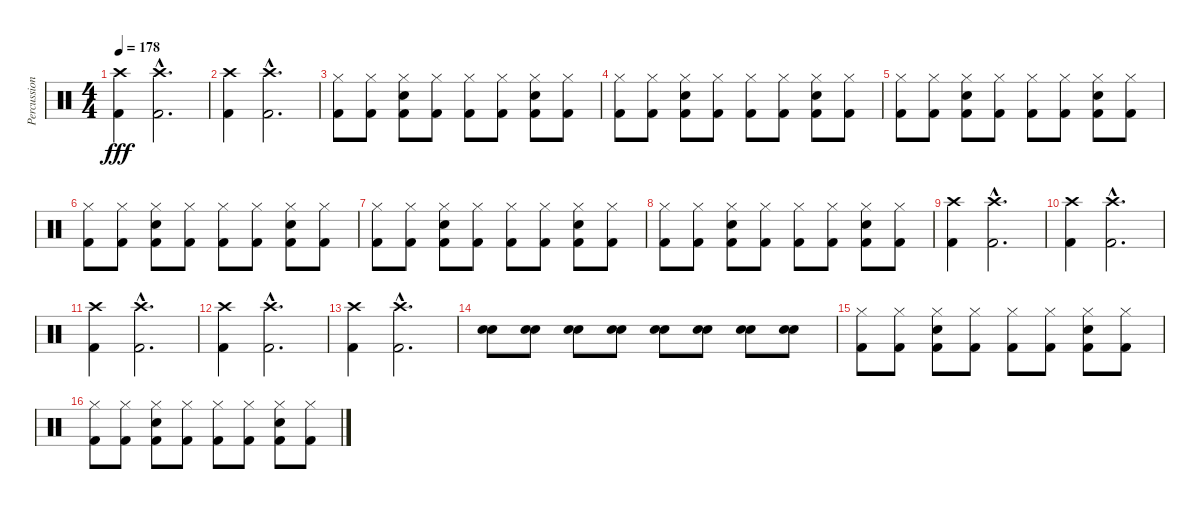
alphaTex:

\track ("Percussion" "Percussion") {instrument percussion}
\staff {score}
\articulation defaults
\ts (4 4)
\tempo 178
\clef neutral
\ks c
("Crash high (hit)" "Kick (hit) 2").4{dy fff} ("Crash high (hit)"{hac} "Kick (hit) 2"{hac}).2{d} |
("Crash high (hit)" "Kick (hit) 2").4 ("Crash high (hit)"{hac} "Kick (hit) 2"{hac}).2{d} |
("Hi-Hat (closed)" "Kick (hit) 2").8 ("Hi-Hat (closed)" "Kick (hit) 2").8 ("Hi-Hat (closed)" "Kick (hit) 2" "Electric Snare (hit)").8 ("Hi-Hat (closed)" "Kick (hit) 2").8 ("Hi-Hat (closed)" "Kick (hit) 2").8 ("Hi-Hat (closed)" "Kick (hit) 2").8 ("Hi-Hat (closed)" "Kick (hit) 2" "Electric Snare (hit)").8 ("Hi-Hat (closed)" "Kick (hit) 2").8 |
("Hi-Hat (closed)" "Kick (hit) 2").8 ("Hi-Hat (closed)" "Kick (hit) 2").8 ("Hi-Hat (closed)" "Kick (hit) 2" "Electric Snare (hit)").8 ("Hi-Hat (closed)" "Kick (hit) 2").8 ("Hi-Hat (closed)" "Kick (hit) 2").8 ("Hi-Hat (closed)" "Kick (hit) 2").8 ("Hi-Hat (closed)" "Kick (hit) 2" "Electric Snare (hit)").8 ("Hi-Hat (closed)" "Kick (hit) 2").8 |
("Hi-Hat (closed)" "Kick (hit) 2").8 ("Hi-Hat (closed)" "Kick (hit) 2").8 ("Hi-Hat (closed)" "Kick (hit) 2" "Electric Snare (hit)").8 ("Hi-Hat (closed)" "Kick (hit) 2").8 ("Hi-Hat (closed)" "Kick (hit) 2").8 ("Hi-Hat (closed)" "Kick (hit) 2").8 ("Hi-Hat (closed)" "Kick (hit) 2" "Electric Snare (hit)").8 ("Hi-Hat (closed)" "Kick (hit) 2").8 |
("Hi-Hat (closed)" "Kick (hit) 2").8 ("Hi-Hat (closed)" "Kick (hit) 2").8 ("Hi-Hat (closed)" "Kick (hit) 2" "Electric Snare (hit)").8 ("Hi-Hat (closed)" "Kick (hit) 2").8 ("Hi-Hat (closed)" "Kick (hit) 2").8 ("Hi-Hat (closed)" "Kick (hit) 2").8 ("Hi-Hat (closed)" "Kick (hit) 2" "Electric Snare (hit)").8 ("Hi-Hat (closed)" "Kick (hit) 2").8 |
("Hi-Hat (closed)" "Kick (hit) 2").8 ("Hi-Hat (closed)" "Kick (hit) 2").8 ("Hi-Hat (closed)" "Kick (hit) 2" "Electric Snare (hit)").8 ("Hi-Hat (closed)" "Kick (hit) 2").8 ("Hi-Hat (closed)" "Kick (hit) 2").8 ("Hi-Hat (closed)" "Kick (hit) 2").8 ("Hi-Hat (closed)" "Kick (hit) 2" "Electric Snare (hit)").8 ("Hi-Hat (closed)" "Kick (hit) 2").8 |
("Hi-Hat (closed)" "Kick (hit) 2").8 ("Hi-Hat (closed)" "Kick (hit) 2").8 ("Hi-Hat (closed)" "Kick (hit) 2" "Electric Snare (hit)").8 ("Hi-Hat (closed)" "Kick (hit) 2").8 ("Hi-Hat (closed)" "Kick (hit) 2").8 ("Hi-Hat (closed)" "Kick (hit) 2").8 ("Hi-Hat (closed)" "Kick (hit) 2" "Electric Snare (hit)").8 ("Hi-Hat (closed)" "Kick (hit) 2").8 |
("Crash high (hit)" "Kick (hit) 2").4 ("Crash high (hit)"{hac} "Kick (hit) 2"{hac}).2{d} |
("Crash high (hit)" "Kick (hit) 2").4 ("Crash high (hit)"{hac} "Kick (hit) 2"{hac}).2{d} |
("Crash high (hit)" "Kick (hit) 2").4 ("Crash high (hit)"{hac} "Kick (hit) 2"{hac}).2{d} |
("Crash high (hit)" "Kick (hit) 2").4 ("Crash high (hit)"{hac} "Kick (hit) 2"{hac}).2{d} |
("Crash high (hit)" "Kick (hit) 2").4 ("Crash high (hit)"{hac} "Kick (hit) 2"{hac}).2{d} |
("Electric Snare (hit)" "Snare (hit) 2").8 ("Electric Snare (hit)" "Snare (hit) 2").8 ("Electric Snare (hit)" "Snare (hit) 2").8 ("Electric Snare (hit)" "Snare (hit) 2").8 ("Electric Snare (hit)" "Snare (hit) 2").8 ("Electric Snare (hit)" "Snare (hit) 2").8 ("Electric Snare (hit)" "Snare (hit) 2").8 ("Electric Snare (hit)" "Snare (hit) 2").8 |
("Hi-Hat (closed)" "Kick (hit) 2").8 ("Hi-Hat (closed)" "Kick (hit) 2").8 ("Hi-Hat (closed)" "Kick (hit) 2" "Electric Snare (hit)").8 ("Hi-Hat (closed)" "Kick (hit) 2").8 ("Hi-Hat (closed)" "Kick (hit) 2").8 ("Hi-Hat (closed)" "Kick (hit) 2").8 ("Hi-Hat (closed)" "Kick (hit) 2" "Electric Snare (hit)").8 ("Hi-Hat (closed)" "Kick (hit) 2").8 |
("Hi-Hat (closed)" "Kick (hit) 2").8 ("Hi-Hat (closed)" "Kick (hit) 2").8 ("Hi-Hat (closed)" "Kick (hit) 2" "Electric Snare (hit)").8 ("Hi-Hat (closed)" "Kick (hit) 2").8 ("Hi-Hat (closed)" "Kick (hit) 2").8 ("Hi-Hat (closed)" "Kick (hit) 2").8 ("Hi-Hat (closed)" "Kick (hit) 2" "Electric Snare (hit)").8 ("Hi-Hat (closed)" "Kick (hit) 2").8
